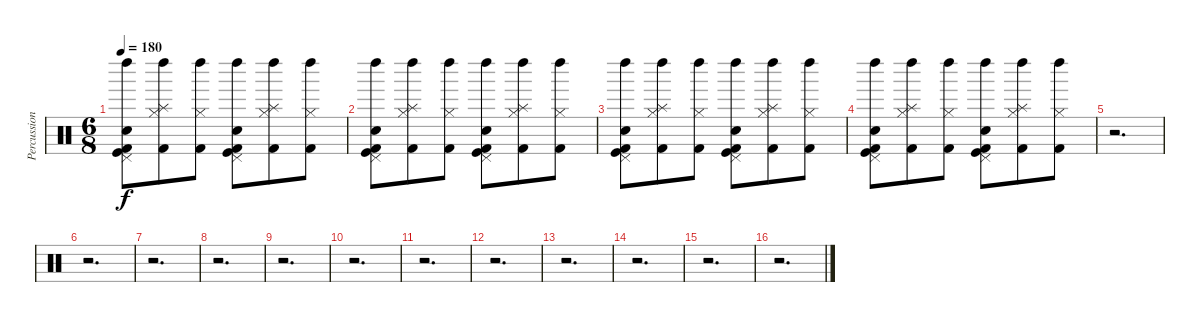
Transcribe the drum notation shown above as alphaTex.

\track ("Percussion" "Percussion") {instrument percussion}
\staff {score}
\articulation defaults
\ts (6 8)
\tempo 180
\clef neutral
\ks c
("Snare (hit) 2" "Kick (hit) 2" "Pedal Hi-Hat (hit)" "Kick (hit)" "Left Maraca (hit)").8{dy f} ("Hi-Hat (closed)" "Kick (hit) 2" "Splash (hit)" "Left Maraca (hit)").8 ("Kick (hit) 2" "Hi-Hat (closed)" "Left Maraca (hit)").8 ("Snare (hit) 2" "Kick (hit) 2" "Pedal Hi-Hat (hit)" "Kick (hit)" "Left Maraca (hit)").8 ("Hi-Hat (closed)" "Kick (hit) 2" "Splash (hit)" "Left Maraca (hit)").8 ("Kick (hit) 2" "Hi-Hat (closed)" "Left Maraca (hit)").8 |
("Snare (hit) 2" "Kick (hit) 2" "Pedal Hi-Hat (hit)" "Kick (hit)" "Left Maraca (hit)").8 ("Hi-Hat (closed)" "Kick (hit) 2" "Splash (hit)" "Left Maraca (hit)").8 ("Kick (hit) 2" "Hi-Hat (closed)" "Left Maraca (hit)").8 ("Snare (hit) 2" "Kick (hit) 2" "Pedal Hi-Hat (hit)" "Kick (hit)" "Left Maraca (hit)").8 ("Hi-Hat (closed)" "Kick (hit) 2" "Splash (hit)" "Left Maraca (hit)").8 ("Kick (hit) 2" "Hi-Hat (closed)" "Left Maraca (hit)").8 |
("Snare (hit) 2" "Kick (hit) 2" "Pedal Hi-Hat (hit)" "Kick (hit)" "Left Maraca (hit)").8 ("Hi-Hat (closed)" "Kick (hit) 2" "Splash (hit)" "Left Maraca (hit)").8 ("Kick (hit) 2" "Hi-Hat (closed)" "Left Maraca (hit)").8 ("Snare (hit) 2" "Kick (hit) 2" "Pedal Hi-Hat (hit)" "Kick (hit)" "Left Maraca (hit)").8 ("Hi-Hat (closed)" "Kick (hit) 2" "Splash (hit)" "Left Maraca (hit)").8 ("Kick (hit) 2" "Hi-Hat (closed)" "Left Maraca (hit)").8 |
("Snare (hit) 2" "Kick (hit) 2" "Pedal Hi-Hat (hit)" "Kick (hit)" "Left Maraca (hit)").8 ("Hi-Hat (closed)" "Kick (hit) 2" "Splash (hit)" "Left Maraca (hit)").8 ("Kick (hit) 2" "Hi-Hat (closed)" "Left Maraca (hit)").8 ("Snare (hit) 2" "Kick (hit) 2" "Pedal Hi-Hat (hit)" "Kick (hit)" "Left Maraca (hit)").8 ("Hi-Hat (closed)" "Kick (hit) 2" "Splash (hit)" "Left Maraca (hit)").8 ("Kick (hit) 2" "Hi-Hat (closed)" "Left Maraca (hit)").8 |
r.2{d} |
r.2{d} |
r.2{d} |
r.2{d} |
r.2{d} |
r.2{d} |
r.2{d} |
r.2{d} |
r.2{d} |
r.2{d} |
r.2{d} |
r.2{d}
